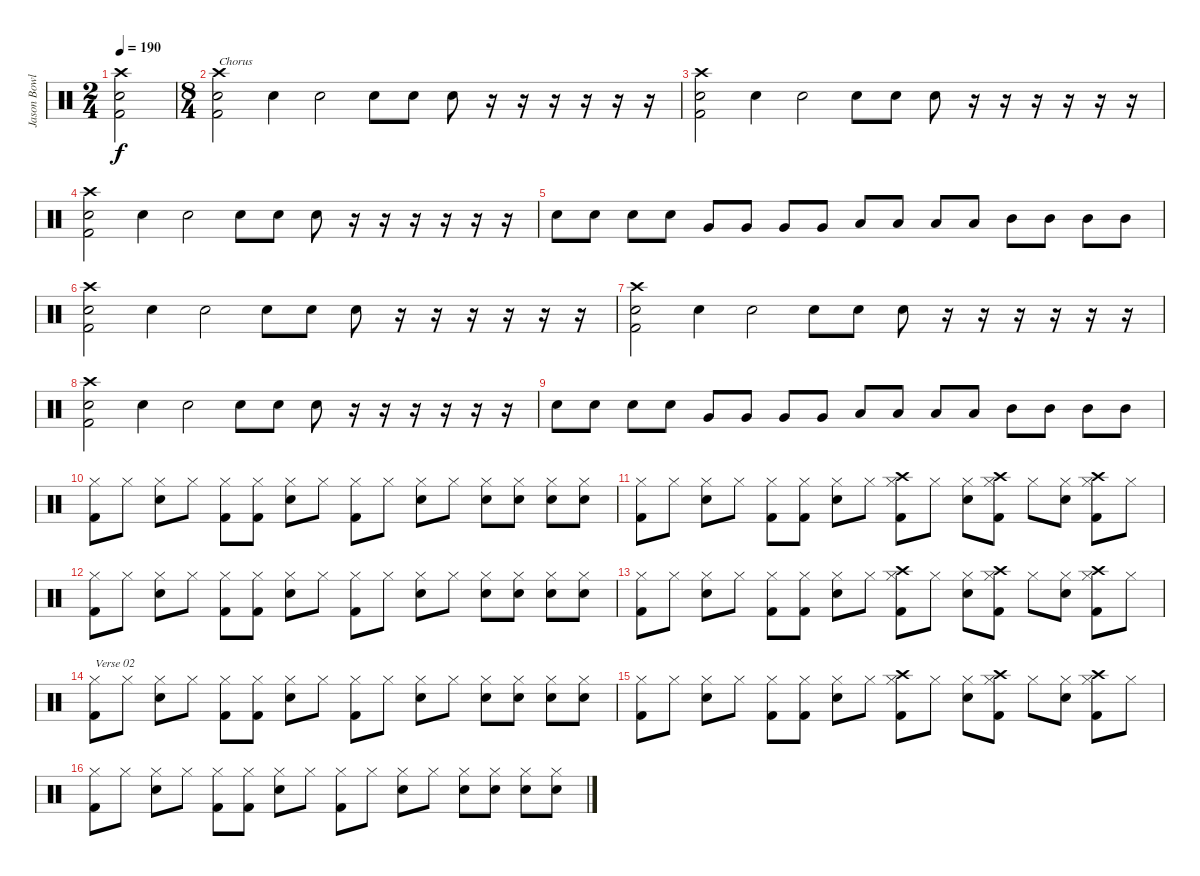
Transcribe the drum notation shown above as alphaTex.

\track ("Jason Bowld" "Jason Bowl") {instrument percussion}
\staff {score}
\articulation defaults
\ts (2 4)
\tempo 190
\clef neutral
\ks c
("Kick (hit) 2" "Snare (hit) 2" "Crash high (hit)").2{dy f} |
\ts (8 4)
("Kick (hit) 2" "Snare (hit) 2" "Crash high (hit)").2{txt "Chorus"} "Snare (hit) 2".4 "Snare (hit) 2".2 "Snare (hit) 2".8 "Snare (hit) 2".8 "Snare (hit) 2".8 r.16 r.16 r.16 r.16 r.16 r.16 |
("Kick (hit) 2" "Snare (hit) 2" "Crash high (hit)").2 "Snare (hit) 2".4 "Snare (hit) 2".2 "Snare (hit) 2".8 "Snare (hit) 2".8 "Snare (hit) 2".8 r.16 r.16 r.16 r.16 r.16 r.16 |
("Kick (hit) 2" "Snare (hit) 2" "Crash high (hit)").2 "Snare (hit) 2".4 "Snare (hit) 2".2 "Snare (hit) 2".8 "Snare (hit) 2".8 "Snare (hit) 2".8 r.16 r.16 r.16 r.16 r.16 r.16 |
"Snare (hit) 2".8 "Snare (hit) 2".8 "Snare (hit) 2".8 "Snare (hit) 2".8 "Very Low Tom (hit)".8 "Very Low Tom (hit)".8 "Very Low Tom (hit)".8 "Very Low Tom (hit)".8 "Low Tom (hit)".8 "Low Tom (hit)".8 "Low Tom (hit)".8 "Low Tom (hit)".8 "Mid Tom (hit)".8 "Mid Tom (hit)".8 "Mid Tom (hit)".8 "Mid Tom (hit)".8 |
("Kick (hit) 2" "Snare (hit) 2" "Crash high (hit)").2 "Snare (hit) 2".4 "Snare (hit) 2".2 "Snare (hit) 2".8 "Snare (hit) 2".8 "Snare (hit) 2".8 r.16 r.16 r.16 r.16 r.16 r.16 |
("Kick (hit) 2" "Snare (hit) 2" "Crash high (hit)").2 "Snare (hit) 2".4 "Snare (hit) 2".2 "Snare (hit) 2".8 "Snare (hit) 2".8 "Snare (hit) 2".8 r.16 r.16 r.16 r.16 r.16 r.16 |
("Kick (hit) 2" "Snare (hit) 2" "Crash high (hit)").2 "Snare (hit) 2".4 "Snare (hit) 2".2 "Snare (hit) 2".8 "Snare (hit) 2".8 "Snare (hit) 2".8 r.16 r.16 r.16 r.16 r.16 r.16 |
"Snare (hit) 2".8 "Snare (hit) 2".8 "Snare (hit) 2".8 "Snare (hit) 2".8 "Very Low Tom (hit)".8 "Very Low Tom (hit)".8 "Very Low Tom (hit)".8 "Very Low Tom (hit)".8 "Low Tom (hit)".8 "Low Tom (hit)".8 "Low Tom (hit)".8 "Low Tom (hit)".8 "Mid Tom (hit)".8 "Mid Tom (hit)".8 "Mid Tom (hit)".8 "Mid Tom (hit)".8 |
("Hi-Hat (closed)" "Kick (hit) 2").8 "Hi-Hat (closed)".8 ("Hi-Hat (closed)" "Snare (hit) 2").8 "Hi-Hat (closed)".8 ("Hi-Hat (closed)" "Kick (hit) 2").8 ("Hi-Hat (closed)" "Kick (hit) 2").8 ("Hi-Hat (closed)" "Snare (hit) 2").8 "Hi-Hat (closed)".8 ("Hi-Hat (closed)" "Kick (hit) 2").8 "Hi-Hat (closed)".8 ("Hi-Hat (closed)" "Snare (hit) 2").8 "Hi-Hat (closed)".8 ("Hi-Hat (closed)" "Snare (hit) 2").8 ("Hi-Hat (closed)" "Snare (hit) 2").8 ("Hi-Hat (closed)" "Snare (hit) 2").8 ("Hi-Hat (closed)" "Snare (hit) 2").8 |
("Hi-Hat (closed)" "Kick (hit) 2").8 "Hi-Hat (closed)".8 ("Hi-Hat (closed)" "Snare (hit) 2").8 "Hi-Hat (closed)".8 ("Hi-Hat (closed)" "Kick (hit) 2").8 ("Hi-Hat (closed)" "Kick (hit) 2").8 ("Hi-Hat (closed)" "Snare (hit) 2").8 "Hi-Hat (closed)".8 ("Hi-Hat (closed)" "Kick (hit) 2" "Crash high (hit)").8 "Hi-Hat (closed)".8 ("Hi-Hat (closed)" "Snare (hit) 2").8 ("Hi-Hat (closed)" "Kick (hit) 2" "Crash high (hit)").8 "Hi-Hat (closed)".8 ("Hi-Hat (closed)" "Snare (hit) 2").8 ("Hi-Hat (closed)" "Kick (hit) 2" "Crash high (hit)").8 "Hi-Hat (closed)".8 |
("Hi-Hat (closed)" "Kick (hit) 2").8 "Hi-Hat (closed)".8 ("Hi-Hat (closed)" "Snare (hit) 2").8 "Hi-Hat (closed)".8 ("Hi-Hat (closed)" "Kick (hit) 2").8 ("Hi-Hat (closed)" "Kick (hit) 2").8 ("Hi-Hat (closed)" "Snare (hit) 2").8 "Hi-Hat (closed)".8 ("Hi-Hat (closed)" "Kick (hit) 2").8 "Hi-Hat (closed)".8 ("Hi-Hat (closed)" "Snare (hit) 2").8 "Hi-Hat (closed)".8 ("Hi-Hat (closed)" "Snare (hit) 2").8 ("Hi-Hat (closed)" "Snare (hit) 2").8 ("Hi-Hat (closed)" "Snare (hit) 2").8 ("Hi-Hat (closed)" "Snare (hit) 2").8 |
("Hi-Hat (closed)" "Kick (hit) 2").8 "Hi-Hat (closed)".8 ("Hi-Hat (closed)" "Snare (hit) 2").8 "Hi-Hat (closed)".8 ("Hi-Hat (closed)" "Kick (hit) 2").8 ("Hi-Hat (closed)" "Kick (hit) 2").8 ("Hi-Hat (closed)" "Snare (hit) 2").8 "Hi-Hat (closed)".8 ("Hi-Hat (closed)" "Kick (hit) 2" "Crash high (hit)").8 "Hi-Hat (closed)".8 ("Hi-Hat (closed)" "Snare (hit) 2").8 ("Hi-Hat (closed)" "Kick (hit) 2" "Crash high (hit)").8 "Hi-Hat (closed)".8 ("Hi-Hat (closed)" "Snare (hit) 2").8 ("Hi-Hat (closed)" "Kick (hit) 2" "Crash high (hit)").8 "Hi-Hat (closed)".8 |
("Hi-Hat (closed)" "Kick (hit) 2").8{txt "Verse 02"} "Hi-Hat (closed)".8 ("Hi-Hat (closed)" "Snare (hit) 2").8 "Hi-Hat (closed)".8 ("Hi-Hat (closed)" "Kick (hit) 2").8 ("Hi-Hat (closed)" "Kick (hit) 2").8 ("Hi-Hat (closed)" "Snare (hit) 2").8 "Hi-Hat (closed)".8 ("Hi-Hat (closed)" "Kick (hit) 2").8 "Hi-Hat (closed)".8 ("Hi-Hat (closed)" "Snare (hit) 2").8 "Hi-Hat (closed)".8 ("Hi-Hat (closed)" "Snare (hit) 2").8 ("Hi-Hat (closed)" "Snare (hit) 2").8 ("Hi-Hat (closed)" "Snare (hit) 2").8 ("Hi-Hat (closed)" "Snare (hit) 2").8 |
("Hi-Hat (closed)" "Kick (hit) 2").8 "Hi-Hat (closed)".8 ("Hi-Hat (closed)" "Snare (hit) 2").8 "Hi-Hat (closed)".8 ("Hi-Hat (closed)" "Kick (hit) 2").8 ("Hi-Hat (closed)" "Kick (hit) 2").8 ("Hi-Hat (closed)" "Snare (hit) 2").8 "Hi-Hat (closed)".8 ("Hi-Hat (closed)" "Kick (hit) 2" "Crash high (hit)").8 "Hi-Hat (closed)".8 ("Hi-Hat (closed)" "Snare (hit) 2").8 ("Hi-Hat (closed)" "Kick (hit) 2" "Crash high (hit)").8 "Hi-Hat (closed)".8 ("Hi-Hat (closed)" "Snare (hit) 2").8 ("Hi-Hat (closed)" "Kick (hit) 2" "Crash high (hit)").8 "Hi-Hat (closed)".8 |
("Hi-Hat (closed)" "Kick (hit) 2").8 "Hi-Hat (closed)".8 ("Hi-Hat (closed)" "Snare (hit) 2").8 "Hi-Hat (closed)".8 ("Hi-Hat (closed)" "Kick (hit) 2").8 ("Hi-Hat (closed)" "Kick (hit) 2").8 ("Hi-Hat (closed)" "Snare (hit) 2").8 "Hi-Hat (closed)".8 ("Hi-Hat (closed)" "Kick (hit) 2").8 "Hi-Hat (closed)".8 ("Hi-Hat (closed)" "Snare (hit) 2").8 "Hi-Hat (closed)".8 ("Hi-Hat (closed)" "Snare (hit) 2").8 ("Hi-Hat (closed)" "Snare (hit) 2").8 ("Hi-Hat (closed)" "Snare (hit) 2").8 ("Hi-Hat (closed)" "Snare (hit) 2").8
